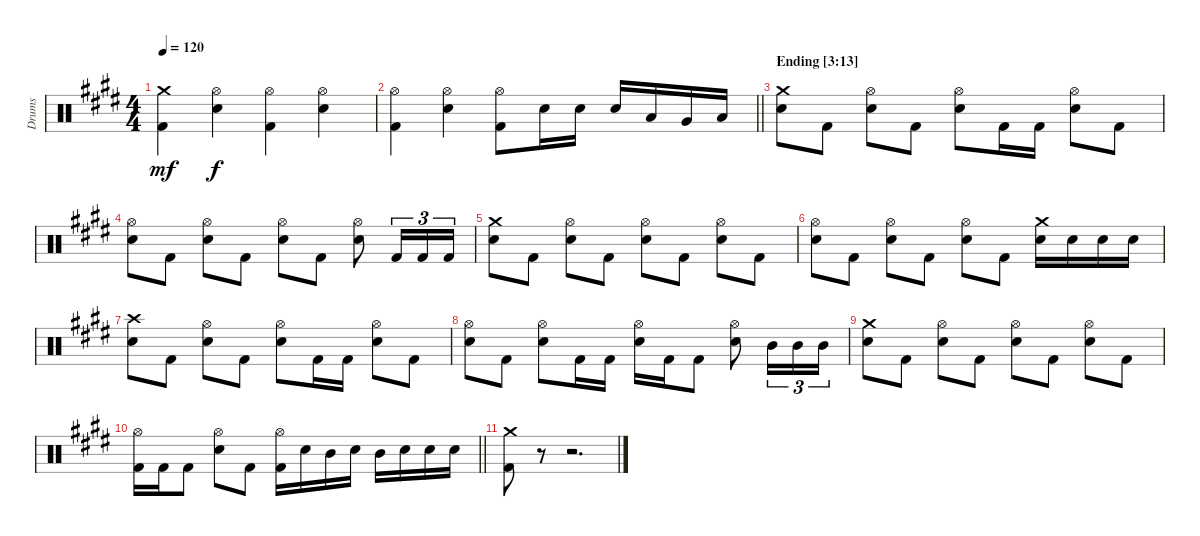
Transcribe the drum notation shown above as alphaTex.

\track ("Drums" "Drums") {instrument percussion}
\staff {score}
\articulation defaults
\ts (4 4)
\tempo 120
\clef neutral
\ks c#minor
("Crash medium (hit)" "Kick (hit) 2").4{dy mf} ("Hi-Hat (open)" "Snare (hit) 2").4{dy f} ("Hi-Hat (open)" "Kick (hit) 2").4 ("Hi-Hat (open)" "Snare (hit) 2").4 |
\barLineRight lightlight
("Hi-Hat (open)" "Kick (hit) 2").4 ("Hi-Hat (open)" "Snare (hit) 2").4 ("Hi-Hat (open)" "Kick (hit) 2").8 "Snare (hit) 2".16 "Snare (hit) 2".16 "Snare (hit) 2".16 "Low Tom (hit)".16 "Very Low Tom (hit)".16 "Low Floor Tom (hit)".16 |
\section ("" "Ending [3:13]")
("Crash medium (hit)" "Snare (hit) 2").8 "Kick (hit) 2".8 ("Hi-Hat (open)" "Snare (hit) 2").8 "Kick (hit) 2".8 ("Hi-Hat (open)" "Snare (hit) 2").8 "Kick (hit) 2".16 "Kick (hit) 2".16 ("Hi-Hat (open)" "Snare (hit) 2").8 "Kick (hit) 2".8 |
("Hi-Hat (open)" "Snare (hit) 2").8 "Kick (hit) 2".8 ("Hi-Hat (open)" "Snare (hit) 2").8 "Kick (hit) 2".8 ("Hi-Hat (open)" "Snare (hit) 2").8 "Kick (hit) 2".8 ("Hi-Hat (open)" "Snare (hit) 2").8 "Kick (hit) 2".16{tu (3 2)} "Kick (hit) 2".16{tu (3 2)} "Kick (hit) 2".16{tu (3 2)} |
("Crash medium (hit)" "Snare (hit) 2").8 "Kick (hit) 2".8 ("Hi-Hat (open)" "Snare (hit) 2").8 "Kick (hit) 2".8 ("Hi-Hat (open)" "Snare (hit) 2").8 "Kick (hit) 2".8 ("Hi-Hat (open)" "Snare (hit) 2").8 "Kick (hit) 2".8 |
("Hi-Hat (open)" "Snare (hit) 2").8 "Kick (hit) 2".8 ("Hi-Hat (open)" "Snare (hit) 2").8 "Kick (hit) 2".8 ("Hi-Hat (open)" "Snare (hit) 2").8 "Kick (hit) 2".8 ("Crash medium (hit)" "Snare (hit) 2").16 "Snare (hit) 2".16 "Snare (hit) 2".16 "Snare (hit) 2".16 |
("Crash high (hit)" "Snare (hit) 2").8 "Kick (hit) 2".8 ("Hi-Hat (open)" "Snare (hit) 2").8 "Kick (hit) 2".8 ("Hi-Hat (open)" "Snare (hit) 2").8 "Kick (hit) 2".16 "Kick (hit) 2".16 ("Hi-Hat (open)" "Snare (hit) 2").8 "Kick (hit) 2".8 |
("Hi-Hat (open)" "Snare (hit) 2").8 "Kick (hit) 2".8 ("Hi-Hat (open)" "Snare (hit) 2").8 "Kick (hit) 2".16 "Kick (hit) 2".16 ("Hi-Hat (open)" "Snare (hit) 2").16 "Kick (hit) 2".16 "Kick (hit) 2".8 ("Hi-Hat (open)" "Snare (hit) 2").8 "Mid Tom (hit)".16{tu (3 2)} "Mid Tom (hit)".16{tu (3 2)} "Mid Tom (hit)".16{tu (3 2)} |
("Crash medium (hit)" "Snare (hit) 2").8 "Kick (hit) 2".8 ("Hi-Hat (open)" "Snare (hit) 2").8 "Kick (hit) 2".8 ("Hi-Hat (open)" "Snare (hit) 2").8 "Kick (hit) 2".8 ("Hi-Hat (open)" "Snare (hit) 2").8 "Kick (hit) 2".8 |
\barLineRight lightlight
("Hi-Hat (open)" "Kick (hit) 2").16 "Kick (hit) 2".16 "Kick (hit) 2".8 ("Hi-Hat (open)" "Snare (hit) 2").8 "Kick (hit) 2".8 ("Hi-Hat (open)" "Kick (hit) 2").16 "Snare (hit) 2".16 "Mid Tom (hit)".16 "Snare (hit) 2".16 "Mid Tom (hit)".16 "Snare (hit) 2".16 "Snare (hit) 2".16 "Snare (hit) 2".16 |
("Crash medium (hit)" "Kick (hit) 2").8 r.8 r.2{d}
